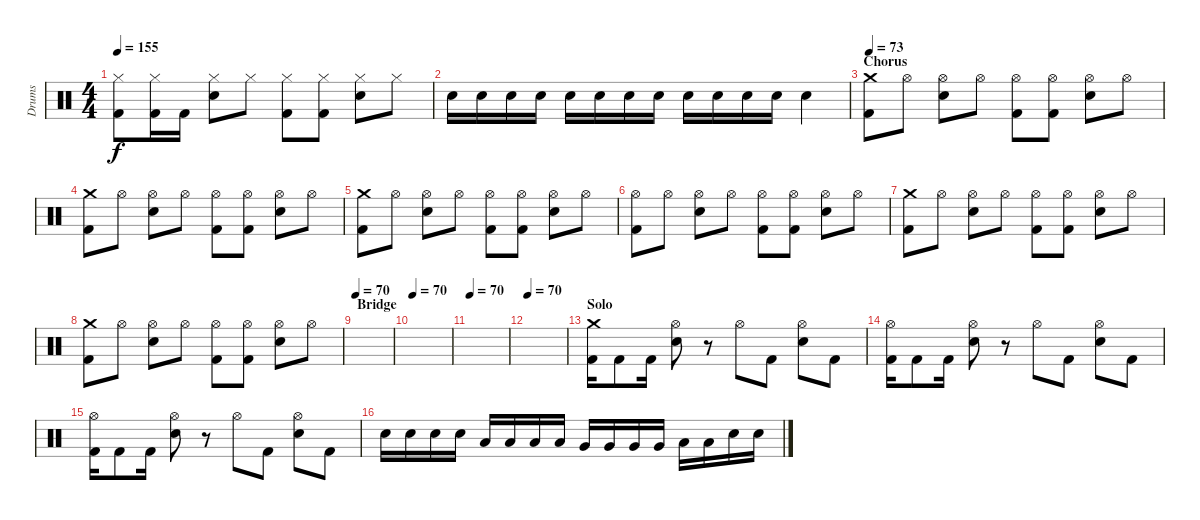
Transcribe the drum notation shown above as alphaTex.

\track ("Drums" "Drums") {instrument percussion}
\staff {score}
\articulation defaults
\ts (4 4)
\tempo 155
\clef neutral
\ks c
("Hi-Hat (closed)" "Kick (hit) 2").8{dy f} ("Hi-Hat (closed)" "Kick (hit) 2").16 "Kick (hit) 2".16 ("Hi-Hat (closed)" "Snare (hit) 2").8 "Hi-Hat (closed)".8 ("Hi-Hat (closed)" "Kick (hit) 2").8 ("Hi-Hat (closed)" "Kick (hit) 2").8 ("Hi-Hat (closed)" "Snare (hit) 2").8 "Hi-Hat (closed)".8 |
"Snare (hit) 2".16 "Snare (hit) 2".16 "Snare (hit) 2".16 "Snare (hit) 2".16 "Snare (hit) 2".16 "Snare (hit) 2".16 "Snare (hit) 2".16 "Snare (hit) 2".16 "Snare (hit) 2".16 "Snare (hit) 2".16 "Snare (hit) 2".16 "Snare (hit) 2".16 "Snare (hit) 2".4 |
\section ("" "Chorus")
\tempo 73
("Crash medium (hit)" "Kick (hit) 2").8 "Hi-Hat (open)".8 ("Hi-Hat (open)" "Snare (hit) 2").8 "Hi-Hat (open)".8 ("Hi-Hat (open)" "Kick (hit) 2").8 ("Hi-Hat (open)" "Kick (hit) 2").8 ("Hi-Hat (open)" "Snare (hit) 2").8 "Hi-Hat (open)".8 |
("Crash medium (hit)" "Kick (hit) 2").8 "Hi-Hat (open)".8 ("Hi-Hat (open)" "Snare (hit) 2").8 "Hi-Hat (open)".8 ("Hi-Hat (open)" "Kick (hit) 2").8 ("Hi-Hat (open)" "Kick (hit) 2").8 ("Hi-Hat (open)" "Snare (hit) 2").8 "Hi-Hat (open)".8 |
("Crash medium (hit)" "Kick (hit) 2").8 "Hi-Hat (open)".8 ("Hi-Hat (open)" "Snare (hit) 2").8 "Hi-Hat (open)".8 ("Hi-Hat (open)" "Kick (hit) 2").8 ("Hi-Hat (open)" "Kick (hit) 2").8 ("Hi-Hat (open)" "Snare (hit) 2").8 "Hi-Hat (open)".8 |
("Hi-Hat (open)" "Kick (hit) 2").8 "Hi-Hat (open)".8 ("Hi-Hat (open)" "Snare (hit) 2").8 "Hi-Hat (open)".8 ("Hi-Hat (open)" "Kick (hit) 2").8 ("Hi-Hat (open)" "Kick (hit) 2").8 ("Hi-Hat (open)" "Snare (hit) 2").8 "Hi-Hat (open)".8 |
("Crash medium (hit)" "Kick (hit) 2").8 "Hi-Hat (open)".8 ("Hi-Hat (open)" "Snare (hit) 2").8 "Hi-Hat (open)".8 ("Hi-Hat (open)" "Kick (hit) 2").8 ("Hi-Hat (open)" "Kick (hit) 2").8 ("Hi-Hat (open)" "Snare (hit) 2").8 "Hi-Hat (open)".8 |
("Crash medium (hit)" "Kick (hit) 2").8 "Hi-Hat (open)".8 ("Hi-Hat (open)" "Snare (hit) 2").8 "Hi-Hat (open)".8 ("Hi-Hat (open)" "Kick (hit) 2").8 ("Hi-Hat (open)" "Kick (hit) 2").8 ("Hi-Hat (open)" "Snare (hit) 2").8 "Hi-Hat (open)".8 |
\section ("" "Bridge")
\tempo 70
|
\tempo 70
|
\tempo 70
|
\tempo 70
|
\section ("" "Solo")
("Crash medium (hit)" "Kick (hit) 2").16 "Kick (hit) 2".8 "Kick (hit) 2".16 ("Hi-Hat (open)" "Snare (hit) 2").8 r.8 "Hi-Hat (open)".8 "Kick (hit) 2".8 ("Hi-Hat (open)" "Snare (hit) 2").8 "Kick (hit) 2".8 |
("Hi-Hat (open)" "Kick (hit) 2").16 "Kick (hit) 2".8 "Kick (hit) 2".16 ("Hi-Hat (open)" "Snare (hit) 2").8 r.8 "Hi-Hat (open)".8 "Kick (hit) 2".8 ("Hi-Hat (open)" "Snare (hit) 2").8 "Kick (hit) 2".8 |
("Hi-Hat (open)" "Kick (hit) 2").16 "Kick (hit) 2".8 "Kick (hit) 2".16 ("Hi-Hat (open)" "Snare (hit) 2").8 r.8 "Hi-Hat (open)".8 "Kick (hit) 2".8 ("Hi-Hat (open)" "Snare (hit) 2").8 "Kick (hit) 2".8 |
"Snare (hit) 2".16 "Snare (hit) 2".16 "Snare (hit) 2".16 "Snare (hit) 2".16 "Low Tom (hit)".16 "Low Tom (hit)".16 "Low Tom (hit)".16 "Low Tom (hit)".16 "Very Low Tom (hit)".16 "Very Low Tom (hit)".16 "Very Low Tom (hit)".16 "Very Low Tom (hit)".16 "Low Floor Tom (hit)".16 "Low Floor Tom (hit)".16 "Snare (hit) 2".16 "Snare (hit) 2".16
